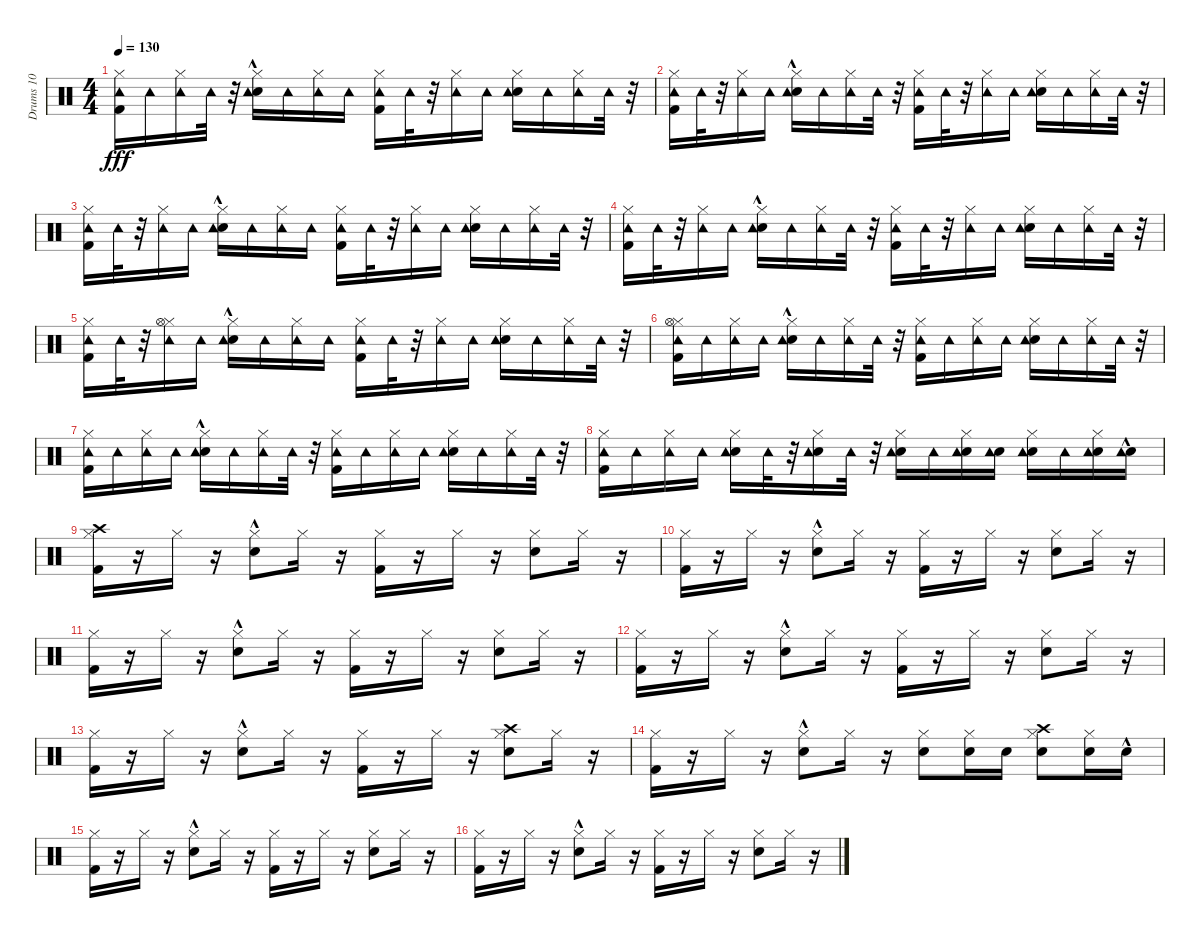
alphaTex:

\track ("Drums 10            " "Drums 10  ") {instrument percussion}
\staff {score}
\articulation defaults
\ts (4 4)
\tempo 130
\clef neutral
\ks c
("Kick (hit) 2" "Tambourine (hit)" "Hi-Hat (closed)").16{dy fff} "Tambourine (hit)".16 ("Tambourine (hit)" "Hi-Hat (closed)").16 "Tambourine (hit)".32 r.32 ("Snare (hit) 2"{hac} "Tambourine (hit)" "Hi-Hat (closed)").16 "Tambourine (hit)".16 ("Tambourine (hit)" "Hi-Hat (closed)").16 "Tambourine (hit)".16 ("Kick (hit) 2" "Tambourine (hit)" "Hi-Hat (closed)").16 "Tambourine (hit)".32 r.32 ("Tambourine (hit)" "Hi-Hat (closed)").16 "Tambourine (hit)".16 ("Snare (hit) 2" "Tambourine (hit)" "Hi-Hat (closed)").16 "Tambourine (hit)".16 ("Tambourine (hit)" "Hi-Hat (closed)").16 "Tambourine (hit)".32 r.32 |
("Kick (hit) 2" "Tambourine (hit)" "Hi-Hat (closed)").16 "Tambourine (hit)".32 r.32 ("Tambourine (hit)" "Hi-Hat (closed)").16 "Tambourine (hit)".16 ("Snare (hit) 2"{hac} "Tambourine (hit)" "Hi-Hat (closed)").16 "Tambourine (hit)".16 ("Tambourine (hit)" "Hi-Hat (closed)").16 "Tambourine (hit)".32 r.32 ("Kick (hit) 2" "Tambourine (hit)" "Hi-Hat (closed)").16 "Tambourine (hit)".32 r.32 ("Tambourine (hit)" "Hi-Hat (closed)").16 "Tambourine (hit)".16 ("Snare (hit) 2" "Tambourine (hit)" "Hi-Hat (closed)").16 "Tambourine (hit)".16 ("Tambourine (hit)" "Hi-Hat (closed)").16 "Tambourine (hit)".32 r.32 |
("Kick (hit) 2" "Tambourine (hit)" "Hi-Hat (closed)").16 "Tambourine (hit)".32 r.32 ("Tambourine (hit)" "Hi-Hat (closed)").16 "Tambourine (hit)".16 ("Snare (hit) 2"{hac} "Tambourine (hit)" "Hi-Hat (closed)").16 "Tambourine (hit)".16 ("Tambourine (hit)" "Hi-Hat (closed)").16 "Tambourine (hit)".16 ("Kick (hit) 2" "Tambourine (hit)" "Hi-Hat (closed)").16 "Tambourine (hit)".32 r.32 ("Tambourine (hit)" "Hi-Hat (closed)").16 "Tambourine (hit)".16 ("Snare (hit) 2" "Tambourine (hit)" "Hi-Hat (closed)").16 "Tambourine (hit)".16 ("Tambourine (hit)" "Hi-Hat (closed)").16 "Tambourine (hit)".32 r.32 |
("Kick (hit) 2" "Tambourine (hit)" "Hi-Hat (closed)").16 "Tambourine (hit)".32 r.32 ("Tambourine (hit)" "Hi-Hat (closed)").16 "Tambourine (hit)".16 ("Snare (hit) 2"{hac} "Tambourine (hit)" "Hi-Hat (closed)").16 "Tambourine (hit)".16 ("Tambourine (hit)" "Hi-Hat (closed)").16 "Tambourine (hit)".32 r.32 ("Kick (hit) 2" "Tambourine (hit)" "Hi-Hat (closed)").16 "Tambourine (hit)".32 r.32 ("Tambourine (hit)" "Hi-Hat (closed)").16 "Tambourine (hit)".16 ("Snare (hit) 2" "Tambourine (hit)" "Hi-Hat (closed)").16 "Tambourine (hit)".16 ("Tambourine (hit)" "Hi-Hat (closed)").16 "Tambourine (hit)".32 r.32 |
("Kick (hit) 2" "Tambourine (hit)" "Hi-Hat (closed)").16 "Tambourine (hit)".32 r.32 ("Tambourine (hit)" "Hi-Hat (closed)" "Hi-Hat (open)").16 "Tambourine (hit)".16 ("Snare (hit) 2"{hac} "Tambourine (hit)" "Hi-Hat (closed)").16 "Tambourine (hit)".16 ("Tambourine (hit)" "Hi-Hat (closed)").16 "Tambourine (hit)".16 ("Kick (hit) 2" "Tambourine (hit)" "Hi-Hat (closed)").16 "Tambourine (hit)".32 r.32 ("Tambourine (hit)" "Hi-Hat (closed)").16 "Tambourine (hit)".16 ("Snare (hit) 2" "Tambourine (hit)" "Hi-Hat (closed)").16 "Tambourine (hit)".16 ("Tambourine (hit)" "Hi-Hat (closed)").16 "Tambourine (hit)".32 r.32 |
("Kick (hit) 2" "Tambourine (hit)" "Hi-Hat (closed)" "Hi-Hat (open)").16 "Tambourine (hit)".16 ("Tambourine (hit)" "Hi-Hat (closed)").16 "Tambourine (hit)".16 ("Snare (hit) 2"{hac} "Tambourine (hit)" "Hi-Hat (closed)").16 "Tambourine (hit)".16 ("Tambourine (hit)" "Hi-Hat (closed)").16 "Tambourine (hit)".32 r.32 ("Kick (hit) 2" "Tambourine (hit)" "Hi-Hat (closed)").16 "Tambourine (hit)".16 ("Tambourine (hit)" "Hi-Hat (closed)").16 "Tambourine (hit)".16 ("Snare (hit) 2" "Tambourine (hit)" "Hi-Hat (closed)").16 "Tambourine (hit)".16 ("Tambourine (hit)" "Hi-Hat (closed)").16 "Tambourine (hit)".32 r.32 |
("Kick (hit) 2" "Tambourine (hit)" "Hi-Hat (closed)").16 "Tambourine (hit)".16 ("Tambourine (hit)" "Hi-Hat (closed)").16 "Tambourine (hit)".16 ("Snare (hit) 2"{hac} "Tambourine (hit)" "Hi-Hat (closed)").16 "Tambourine (hit)".16 ("Tambourine (hit)" "Hi-Hat (closed)").16 "Tambourine (hit)".32 r.32 ("Kick (hit) 2" "Tambourine (hit)" "Hi-Hat (closed)").16 "Tambourine (hit)".16 ("Tambourine (hit)" "Hi-Hat (closed)").16 "Tambourine (hit)".16 ("Snare (hit) 2" "Tambourine (hit)" "Hi-Hat (closed)").16 "Tambourine (hit)".16 ("Tambourine (hit)" "Hi-Hat (closed)").16 "Tambourine (hit)".32 r.32 |
("Kick (hit) 2" "Tambourine (hit)" "Hi-Hat (closed)").16 "Tambourine (hit)".16 ("Tambourine (hit)" "Hi-Hat (closed)").16 "Tambourine (hit)".16 ("Snare (hit) 2" "Tambourine (hit)" "Hi-Hat (closed)").16 "Tambourine (hit)".32 r.32 ("Snare (hit) 2" "Tambourine (hit)" "Hi-Hat (closed)").16 "Tambourine (hit)".32 r.32 ("Snare (hit) 2" "Tambourine (hit)" "Hi-Hat (closed)").16 "Tambourine (hit)".16 ("Snare (hit) 2" "Tambourine (hit)" "Hi-Hat (closed)").16 ("Snare (hit) 2" "Tambourine (hit)").16 ("Snare (hit) 2" "Tambourine (hit)" "Hi-Hat (closed)").16 "Tambourine (hit)".16 ("Snare (hit) 2" "Tambourine (hit)" "Hi-Hat (closed)").16 ("Snare (hit) 2"{hac} "Tambourine (hit)").16 |
("Kick (hit) 2" "Hi-Hat (closed)" "Crash high (hit)").16 r.16 "Hi-Hat (closed)".16 r.16 ("Snare (hit) 2"{hac} "Hi-Hat (closed)").8 "Hi-Hat (closed)".16 r.16 ("Kick (hit) 2" "Hi-Hat (closed)").16 r.16 "Hi-Hat (closed)".16 r.16 ("Snare (hit) 2" "Hi-Hat (closed)").8 "Hi-Hat (closed)".16 r.16 |
("Kick (hit) 2" "Hi-Hat (closed)").16 r.16 "Hi-Hat (closed)".16 r.16 ("Snare (hit) 2"{hac} "Hi-Hat (closed)").8 "Hi-Hat (closed)".16 r.16 ("Kick (hit) 2" "Hi-Hat (closed)").16 r.16 "Hi-Hat (closed)".16 r.16 ("Snare (hit) 2" "Hi-Hat (closed)").8 "Hi-Hat (closed)".16 r.16 |
("Kick (hit) 2" "Hi-Hat (closed)").16 r.16 "Hi-Hat (closed)".16 r.16 ("Snare (hit) 2"{hac} "Hi-Hat (closed)").8 "Hi-Hat (closed)".16 r.16 ("Kick (hit) 2" "Hi-Hat (closed)").16 r.16 "Hi-Hat (closed)".16 r.16 ("Snare (hit) 2" "Hi-Hat (closed)").8 "Hi-Hat (closed)".16 r.16 |
("Kick (hit) 2" "Hi-Hat (closed)").16 r.16 "Hi-Hat (closed)".16 r.16 ("Snare (hit) 2"{hac} "Hi-Hat (closed)").8 "Hi-Hat (closed)".16 r.16 ("Kick (hit) 2" "Hi-Hat (closed)").16 r.16 "Hi-Hat (closed)".16 r.16 ("Snare (hit) 2" "Hi-Hat (closed)").8 "Hi-Hat (closed)".16 r.16 |
("Kick (hit) 2" "Hi-Hat (closed)").16 r.16 "Hi-Hat (closed)".16 r.16 ("Snare (hit) 2"{hac} "Hi-Hat (closed)").8 "Hi-Hat (closed)".16 r.16 ("Kick (hit) 2" "Hi-Hat (closed)").16 r.16 "Hi-Hat (closed)".16 r.16 ("Snare (hit) 2" "Hi-Hat (closed)" "Crash high (hit)").8 "Hi-Hat (closed)".16 r.16 |
("Kick (hit) 2" "Hi-Hat (closed)").16 r.16 "Hi-Hat (closed)".16 r.16 ("Snare (hit) 2"{hac} "Hi-Hat (closed)").8 "Hi-Hat (closed)".16 r.16 ("Snare (hit) 2" "Hi-Hat (closed)").8 ("Snare (hit) 2" "Hi-Hat (closed)").16 "Snare (hit) 2".16 ("Snare (hit) 2" "Hi-Hat (closed)" "Crash high (hit)").8 ("Snare (hit) 2" "Hi-Hat (closed)").16 "Snare (hit) 2"{hac}.16 |
("Kick (hit) 2" "Hi-Hat (closed)").16 r.16 "Hi-Hat (closed)".16 r.16 ("Snare (hit) 2"{hac} "Hi-Hat (closed)").8 "Hi-Hat (closed)".16 r.16 ("Kick (hit) 2" "Hi-Hat (closed)").16 r.16 "Hi-Hat (closed)".16 r.16 ("Snare (hit) 2" "Hi-Hat (closed)").8 "Hi-Hat (closed)".16 r.16 |
("Kick (hit) 2" "Hi-Hat (closed)").16 r.16 "Hi-Hat (closed)".16 r.16 ("Snare (hit) 2"{hac} "Hi-Hat (closed)").8 "Hi-Hat (closed)".16 r.16 ("Kick (hit) 2" "Hi-Hat (closed)").16 r.16 "Hi-Hat (closed)".16 r.16 ("Snare (hit) 2" "Hi-Hat (closed)").8 "Hi-Hat (closed)".16 r.16
